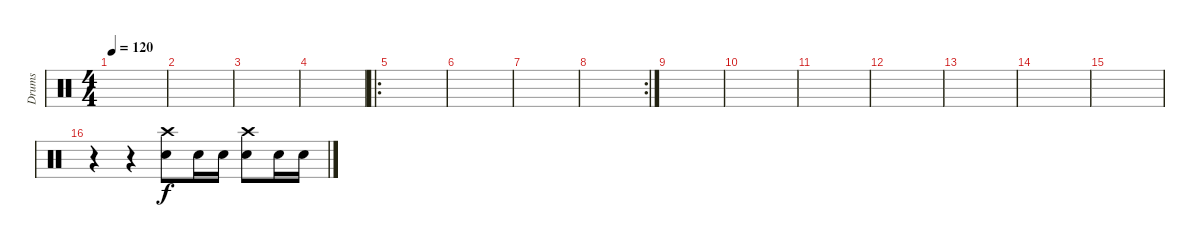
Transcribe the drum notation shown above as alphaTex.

\track ("Drums" "Drums") {instrument percussion}
\staff {score}
\articulation defaults
\ts (4 4)
\tempo 120
\clef neutral
\ks c
|
|
|
|
\ro
|
|
|
\rc 2
|
|
|
|
|
|
|
|
r.4 r.4 ("Crash high (hit)" "Snare (hit) 2").8 "Snare (hit) 2".16 "Snare (hit) 2".16 ("Crash high (hit)" "Snare (hit) 2").8 "Snare (hit) 2".16 "Snare (hit) 2".16
